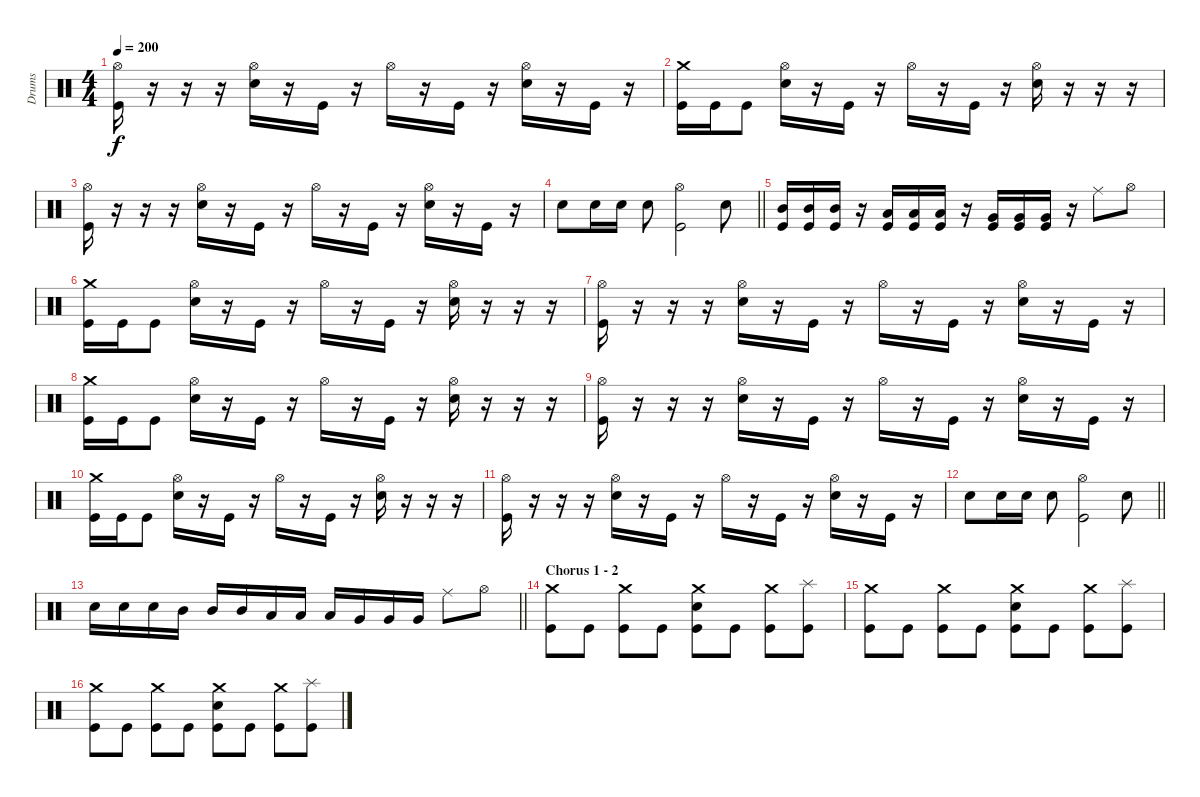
\track ("Drums" "Drums") {instrument percussion}
\staff {score}
\articulation defaults
\ts (4 4)
\tempo 200
\clef neutral
\ks c
("Hi-Hat (open)" "Kick (hit)").16{dy f} r.16 r.16 r.16 ("Hi-Hat (open)" "Snare (hit) 2").16 r.16 "Kick (hit)".16 r.16 "Hi-Hat (open)".16 r.16 "Kick (hit)".16 r.16 ("Hi-Hat (open)" "Snare (hit) 2").16 r.16 "Kick (hit)".16 r.16 |
("Crash medium (hit)" "Kick (hit)").16 "Kick (hit)".16 "Kick (hit)".8 ("Hi-Hat (open)" "Snare (hit) 2").16 r.16 "Kick (hit)".16 r.16 "Hi-Hat (open)".16 r.16 "Kick (hit)".16 r.16 ("Hi-Hat (open)" "Snare (hit) 2").16 r.16 r.16 r.16 |
("Hi-Hat (open)" "Kick (hit)").16 r.16 r.16 r.16 ("Hi-Hat (open)" "Snare (hit) 2").16 r.16 "Kick (hit)".16 r.16 "Hi-Hat (open)".16 r.16 "Kick (hit)".16 r.16 ("Hi-Hat (open)" "Snare (hit) 2").16 r.16 "Kick (hit)".16 r.16 |
\barLineRight lightlight "Snare (hit) 2".8 "Snare (hit) 2".16 "Snare (hit) 2".16 "Snare (hit) 2".8
("Hi-Hat (open)" "Kick (hit)").2 "Snare (hit) 2".8 |
("Mid Tom (hit)" "Kick (hit)").16 ("Mid Tom (hit)" "Kick (hit)").16 ("Mid Tom (hit)" "Kick (hit)").16 r.16 ("Low Tom (hit)" "Kick (hit)").16 ("Low Tom (hit)" "Kick (hit)").16 ("Low Tom (hit)" "Kick (hit)").16 r.16 ("Very Low Tom (hit)" "Kick (hit)").16 ("Very Low Tom (hit)" "Kick (hit)").16 ("Very Low Tom (hit)" "Kick (hit)").16 r.16 "Ride (middle)".8 "Hi-Hat (open)".8 |
("Crash medium (hit)" "Kick (hit)").16 "Kick (hit)".16 "Kick (hit)".8 ("Hi-Hat (open)" "Snare (hit) 2").16 r.16 "Kick (hit)".16 r.16 "Hi-Hat (open)".16 r.16 "Kick (hit)".16 r.16 ("Hi-Hat (open)" "Snare (hit) 2").16 r.16 r.16 r.16 |
("Hi-Hat (open)" "Kick (hit)").16 r.16 r.16 r.16 ("Hi-Hat (open)" "Snare (hit) 2").16 r.16 "Kick (hit)".16 r.16 "Hi-Hat (open)".16 r.16 "Kick (hit)".16 r.16 ("Hi-Hat (open)" "Snare (hit) 2").16 r.16 "Kick (hit)".16 r.16 |
("Crash medium (hit)" "Kick (hit)").16 "Kick (hit)".16 "Kick (hit)".8 ("Hi-Hat (open)" "Snare (hit) 2").16 r.16 "Kick (hit)".16 r.16 "Hi-Hat (open)".16 r.16 "Kick (hit)".16 r.16 ("Hi-Hat (open)" "Snare (hit) 2").16 r.16 r.16 r.16 |
("Hi-Hat (open)" "Kick (hit)").16 r.16 r.16 r.16 ("Hi-Hat (open)" "Snare (hit) 2").16 r.16 "Kick (hit)".16 r.16 "Hi-Hat (open)".16 r.16 "Kick (hit)".16 r.16 ("Hi-Hat (open)" "Snare (hit) 2").16 r.16 "Kick (hit)".16 r.16 |
("Crash medium (hit)" "Kick (hit)").16 "Kick (hit)".16 "Kick (hit)".8 ("Hi-Hat (open)" "Snare (hit) 2").16 r.16 "Kick (hit)".16 r.16 "Hi-Hat (open)".16 r.16 "Kick (hit)".16 r.16 ("Hi-Hat (open)" "Snare (hit) 2").16 r.16 r.16 r.16 |
("Hi-Hat (open)" "Kick (hit)").16 r.16 r.16 r.16 ("Hi-Hat (open)" "Snare (hit) 2").16 r.16 "Kick (hit)".16 r.16 "Hi-Hat (open)".16 r.16 "Kick (hit)".16 r.16 ("Hi-Hat (open)" "Snare (hit) 2").16 r.16 "Kick (hit)".16 r.16 |
\barLineRight lightlight "Snare (hit) 2".8 "Snare (hit) 2".16 "Snare (hit) 2".16 "Snare (hit) 2".8
("Hi-Hat (open)" "Kick (hit)").2 "Snare (hit) 2".8 |
\barLineRight lightlight "Snare (hit) 2".16 "Snare (hit) 2".16 "Snare (hit) 2".16 "Mid Tom (hit)".16 "Mid Tom (hit)".16 "Mid Tom (hit)".16 "Low Tom (hit)".16 "Low Tom (hit)".16 "Low Tom (hit)".16 "Very Low Tom (hit)".16 "Very Low Tom (hit)".16 "Very Low Tom (hit)".16 "Ride (middle)".8 "Hi-Hat (open)".8
|
\section ("" "Chorus 1 - 2")
("Crash medium (hit)" "Kick (hit)").8 "Kick (hit)".8 ("Crash medium (hit)" "Kick (hit)").8 "Kick (hit)".8 ("Crash medium (hit)" "Snare (hit) 2" "Kick (hit)").8 "Kick (hit)".8 ("Crash medium (hit)" "Kick (hit)").8 ("Splash (hit)" "Kick (hit)").8 |
("Crash medium (hit)" "Kick (hit)").8 "Kick (hit)".8 ("Crash medium (hit)" "Kick (hit)").8 "Kick (hit)".8 ("Crash medium (hit)" "Snare (hit) 2" "Kick (hit)").8 "Kick (hit)".8 ("Crash medium (hit)" "Kick (hit)").8 ("Splash (hit)" "Kick (hit)").8 |
("Crash medium (hit)" "Kick (hit)").8 "Kick (hit)".8 ("Crash medium (hit)" "Kick (hit)").8 "Kick (hit)".8 ("Crash medium (hit)" "Snare (hit) 2" "Kick (hit)").8 "Kick (hit)".8 ("Crash medium (hit)" "Kick (hit)").8 ("Splash (hit)" "Kick (hit)").8
